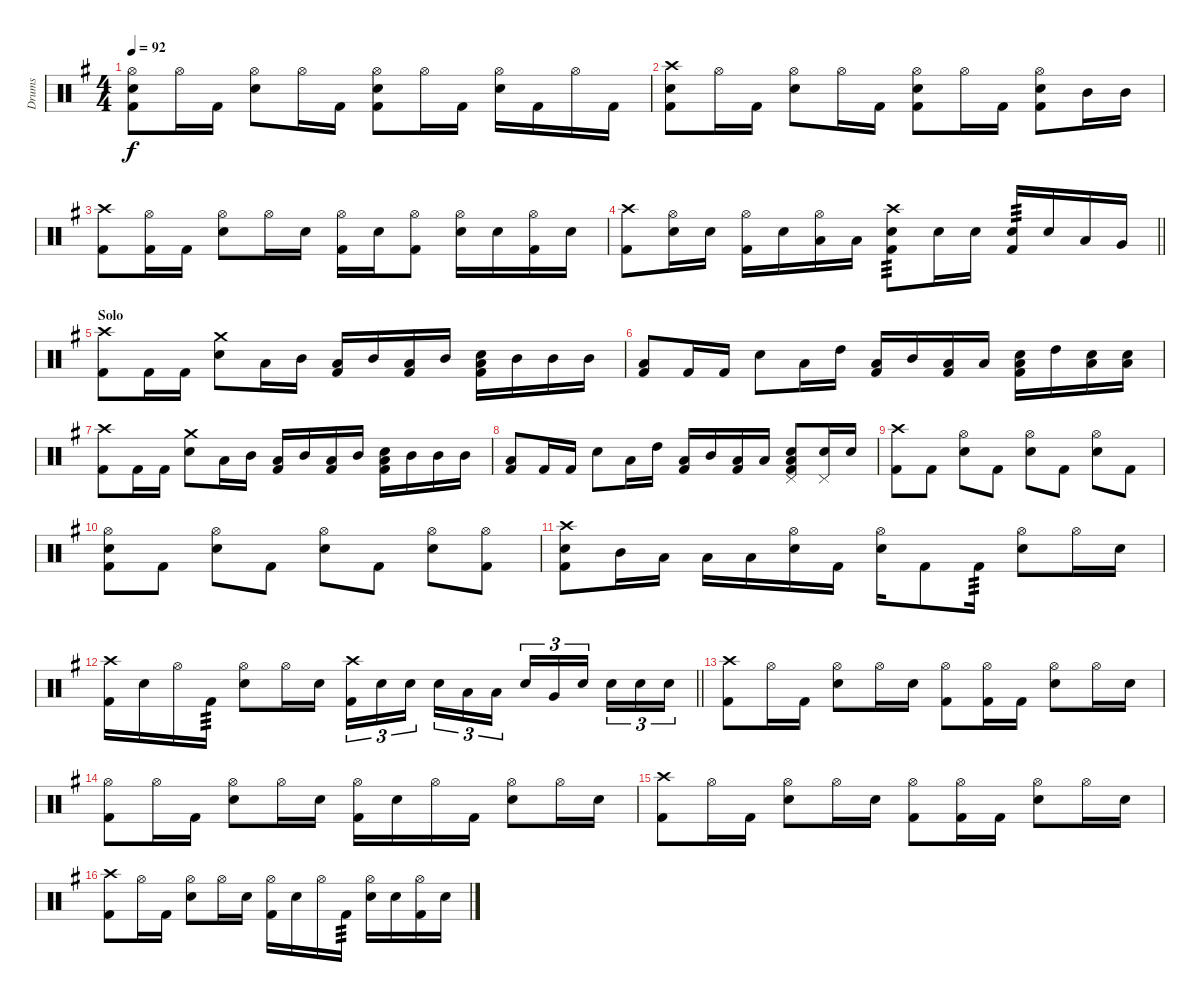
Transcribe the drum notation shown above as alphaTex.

\track ("Drums" "Drums") {instrument percussion}
\staff {score}
\articulation defaults
\ts (4 4)
\tempo 92
\clef neutral
\ks g
("Hi-Hat (open)" "Electric Snare (hit)" "Kick (hit) 2").8{dy f} "Hi-Hat (open)".16 "Kick (hit) 2".16 ("Hi-Hat (open)" "Electric Snare (hit)").8 "Hi-Hat (open)".16 "Kick (hit) 2".16 ("Hi-Hat (open)" "Electric Snare (hit)" "Kick (hit) 2").8 "Hi-Hat (open)".16 "Kick (hit) 2".16 ("Hi-Hat (open)" "Electric Snare (hit)").16 "Kick (hit) 2".16 "Hi-Hat (open)".16 "Kick (hit) 2".16 |
("Crash high (hit)" "Electric Snare (hit)" "Kick (hit) 2").8 "Hi-Hat (open)".16 "Kick (hit) 2".16 ("Hi-Hat (open)" "Electric Snare (hit)").8 "Hi-Hat (open)".16 "Kick (hit) 2".16 ("Hi-Hat (open)" "Electric Snare (hit)" "Kick (hit) 2").8 "Hi-Hat (open)".16 "Kick (hit) 2".16 ("Hi-Hat (open)" "Electric Snare (hit)" "Kick (hit) 2").8 "Mid Tom (hit)".16 "Mid Tom (hit)".16 |
("Crash high (hit)" "Kick (hit) 2").8 ("Hi-Hat (open)" "Kick (hit) 2").16 "Kick (hit) 2".16 ("Hi-Hat (open)" "Electric Snare (hit)").8 "Hi-Hat (open)".16 "Electric Snare (hit)".16 ("Hi-Hat (open)" "Kick (hit) 2").16 "Electric Snare (hit)".16 ("Hi-Hat (open)" "Kick (hit) 2").8 ("Hi-Hat (open)" "Electric Snare (hit)").16 "Electric Snare (hit)".16 ("Hi-Hat (open)" "Kick (hit) 2").16 "Electric Snare (hit)".16 |
\barLineRight lightlight
("Crash high (hit)" "Kick (hit) 2").8 ("Hi-Hat (open)" "Electric Snare (hit)").16 "Electric Snare (hit)".16 ("Hi-Hat (open)" "Kick (hit) 2").16 "Electric Snare (hit)".16 ("Hi-Hat (open)" "Low Tom (hit)").16 "Low Tom (hit)".16 ("Crash high (hit)" "Electric Snare (hit)" "Kick (hit) 2").8{tp 3} "Electric Snare (hit)".16 "Electric Snare (hit)".16 ("Electric Snare (hit)" "Kick (hit) 2").16{tp 3} "Electric Snare (hit)".16 "Low Tom (hit)".16 "Very Low Tom (hit)".16 |
\section ("" "Solo")
("Crash high (hit)" "Kick (hit) 2").8 "Kick (hit) 2".16 "Kick (hit) 2".16 ("Crash medium (hit)" "Electric Snare (hit)").8 "Low Floor Tom (hit)".16 "Mid Tom (hit)".16 ("Low Floor Tom (hit)" "Kick (hit) 2").16 "Mid Tom (hit)".16 ("Low Floor Tom (hit)" "Kick (hit) 2").16 "Mid Tom (hit)".16 ("Electric Snare (hit)" "Low Floor Tom (hit)" "Kick (hit) 2").16 "Mid Tom (hit)".16 "Mid Tom (hit)".16 "Mid Tom (hit)".16 |
("Low Floor Tom (hit)" "Kick (hit) 2").8 "Kick (hit) 2".16 "Kick (hit) 2".16 "Electric Snare (hit)".8 "Low Floor Tom (hit)".16 "High Tom (hit)".16 ("Low Floor Tom (hit)" "Kick (hit) 2").16 "Mid Tom (hit)".16 ("Low Floor Tom (hit)" "Kick (hit) 2").16 "Low Tom (hit)".16 ("Electric Snare (hit)" "Low Floor Tom (hit)" "Kick (hit) 2").16 "High Tom (hit)".16 ("Electric Snare (hit)" "Low Tom (hit)").16 ("Electric Snare (hit)" "Low Tom (hit)").16 |
("Crash high (hit)" "Kick (hit) 2").8 "Kick (hit) 2".16 "Kick (hit) 2".16 ("Crash medium (hit)" "Electric Snare (hit)").8 "Low Floor Tom (hit)".16 "Mid Tom (hit)".16 ("Low Floor Tom (hit)" "Kick (hit) 2").16 "Mid Tom (hit)".16 ("Low Floor Tom (hit)" "Kick (hit) 2").16 "Mid Tom (hit)".16 ("Electric Snare (hit)" "Low Floor Tom (hit)" "Kick (hit) 2").16 "Mid Tom (hit)".16 "Mid Tom (hit)".16 "Mid Tom (hit)".16 |
("Low Floor Tom (hit)" "Kick (hit) 2").8 "Kick (hit) 2".16 "Kick (hit) 2".16 "Electric Snare (hit)".8 "Low Floor Tom (hit)".16 "High Tom (hit)".16 ("Low Floor Tom (hit)" "Kick (hit) 2").16 "Mid Tom (hit)".16 ("Low Floor Tom (hit)" "Kick (hit) 2").16 "Low Tom (hit)".16 ("Pedal Hi-Hat (hit)" "Electric Snare (hit)" "Low Floor Tom (hit)" "Kick (hit) 2").8 ("Pedal Hi-Hat (hit)" "Electric Snare (hit)").16 "Electric Snare (hit)".16 |
("Crash high (hit)" "Kick (hit) 2").8 "Kick (hit) 2".8 ("Hi-Hat (open)" "Electric Snare (hit)").8 "Kick (hit) 2".8 ("Hi-Hat (open)" "Electric Snare (hit)").8 "Kick (hit) 2".8 ("Hi-Hat (open)" "Electric Snare (hit)").8 "Kick (hit) 2".8 |
("Hi-Hat (open)" "Electric Snare (hit)" "Kick (hit) 2").8 "Kick (hit) 2".8 ("Hi-Hat (open)" "Electric Snare (hit)").8 "Kick (hit) 2".8 ("Hi-Hat (open)" "Electric Snare (hit)").8 "Kick (hit) 2".8 ("Hi-Hat (open)" "Electric Snare (hit)").8 ("Hi-Hat (open)" "Kick (hit) 2").8 |
("Crash high (hit)" "Electric Snare (hit)" "Kick (hit) 2").8 "Mid Tom (hit)".16 "Low Floor Tom (hit)".16 "Low Tom (hit)".16 "Low Floor Tom (hit)".16 ("Hi-Hat (open)" "Electric Snare (hit)").16 "Kick (hit) 2".16 ("Hi-Hat (open)" "Electric Snare (hit)").16 "Kick (hit) 2".8 "Kick (hit) 2".16{tp 3} ("Hi-Hat (open)" "Electric Snare (hit)").8 "Hi-Hat (open)".16 "Electric Snare (hit)".16 |
\barLineRight lightlight
("Crash high (hit)" "Kick (hit) 2").16 "Electric Snare (hit)".16 "Hi-Hat (open)".16 "Kick (hit) 2".16{tp 3} ("Hi-Hat (open)" "Electric Snare (hit)").8 "Hi-Hat (open)".16 "Electric Snare (hit)".16 ("Crash high (hit)" "Kick (hit) 2").16{tu (3 2)} "Electric Snare (hit)".16{tu (3 2)} "Electric Snare (hit)".16{tu (3 2) beam splitsecondary} "Electric Snare (hit)".16{tu (3 2)} "Low Tom (hit)".16{tu (3 2)} "Low Tom (hit)".16{tu (3 2)} "Electric Snare (hit)".16{tu (3 2)} "Very Low Tom (hit)".16{tu (3 2)} "Electric Snare (hit)".16{tu (3 2) beam splitsecondary} "Electric Snare (hit)".16{tu (3 2)} "Electric Snare (hit)".16{tu (3 2)} "Electric Snare (hit)".16{tu (3 2)} |
\section ("" "")
("Crash high (hit)" "Kick (hit) 2").8 "Hi-Hat (open)".16 "Kick (hit) 2".16 ("Hi-Hat (open)" "Electric Snare (hit)").8 "Hi-Hat (open)".16 "Electric Snare (hit)".16 ("Hi-Hat (open)" "Kick (hit) 2").8 ("Hi-Hat (open)" "Kick (hit) 2").16 "Kick (hit) 2".16 ("Hi-Hat (open)" "Electric Snare (hit)").8 "Hi-Hat (open)".16 "Electric Snare (hit)".16 |
("Hi-Hat (open)" "Kick (hit) 2").8 "Hi-Hat (open)".16 "Kick (hit) 2".16 ("Hi-Hat (open)" "Electric Snare (hit)").8 "Hi-Hat (open)".16 "Electric Snare (hit)".16 ("Hi-Hat (open)" "Kick (hit) 2").16 "Electric Snare (hit)".16 "Hi-Hat (open)".16 "Kick (hit) 2".16 ("Hi-Hat (open)" "Electric Snare (hit)").8 "Hi-Hat (open)".16 "Electric Snare (hit)".16 |
("Crash high (hit)" "Kick (hit) 2").8 "Hi-Hat (open)".16 "Kick (hit) 2".16 ("Hi-Hat (open)" "Electric Snare (hit)").8 "Hi-Hat (open)".16 "Electric Snare (hit)".16 ("Hi-Hat (open)" "Kick (hit) 2").8 ("Hi-Hat (open)" "Kick (hit) 2").16 "Kick (hit) 2".16 ("Hi-Hat (open)" "Electric Snare (hit)").8 "Hi-Hat (open)".16 "Electric Snare (hit)".16 |
("Crash high (hit)" "Kick (hit) 2").8 "Hi-Hat (open)".16 "Kick (hit) 2".16 ("Hi-Hat (open)" "Electric Snare (hit)").8 "Hi-Hat (open)".16 "Electric Snare (hit)".16 ("Hi-Hat (open)" "Kick (hit) 2").16 "Electric Snare (hit)".16 "Hi-Hat (open)".16 "Kick (hit) 2".16{tp 3} ("Hi-Hat (open)" "Electric Snare (hit)").16 "Electric Snare (hit)".16 ("Hi-Hat (open)" "Kick (hit) 2").16 "Electric Snare (hit)".16
